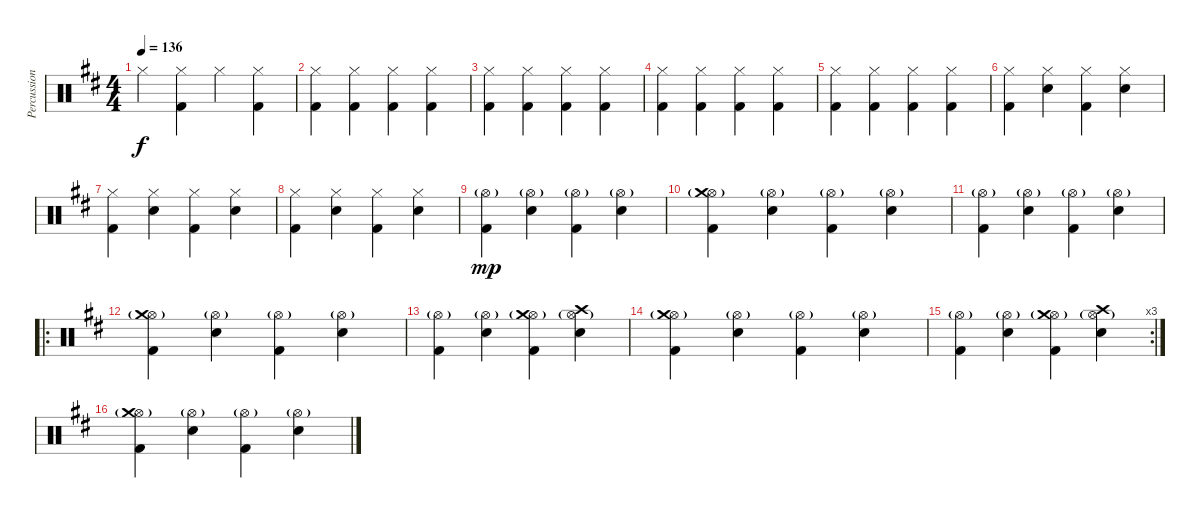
\track ("Percussions" "Percussion") {instrument percussion}
\staff {score}
\articulation defaults
\ts (4 4)
\tempo 136
\clef neutral
\ks d "Hi-Hat (closed)".4{dy f}
("Hi-Hat (closed)" "Kick (hit) 2").4 "Hi-Hat (closed)".4 ("Hi-Hat (closed)" "Kick (hit) 2").4 |
("Hi-Hat (closed)" "Kick (hit) 2").4 ("Hi-Hat (closed)" "Kick (hit) 2").4 ("Hi-Hat (closed)" "Kick (hit) 2").4 ("Hi-Hat (closed)" "Kick (hit) 2").4 |
("Hi-Hat (closed)" "Kick (hit) 2").4 ("Hi-Hat (closed)" "Kick (hit) 2").4 ("Hi-Hat (closed)" "Kick (hit) 2").4 ("Hi-Hat (closed)" "Kick (hit) 2").4 |
("Hi-Hat (closed)" "Kick (hit) 2").4 ("Hi-Hat (closed)" "Kick (hit) 2").4 ("Hi-Hat (closed)" "Kick (hit) 2").4 ("Hi-Hat (closed)" "Kick (hit) 2").4 |
("Hi-Hat (closed)" "Kick (hit) 2").4 ("Hi-Hat (closed)" "Kick (hit) 2").4 ("Hi-Hat (closed)" "Kick (hit) 2").4 ("Hi-Hat (closed)" "Kick (hit) 2").4 |
("Hi-Hat (closed)" "Kick (hit) 2").4 ("Hi-Hat (closed)" "Snare (hit) 2").4 ("Hi-Hat (closed)" "Kick (hit) 2").4 ("Hi-Hat (closed)" "Snare (hit) 2").4 |
("Hi-Hat (closed)" "Kick (hit) 2").4 ("Hi-Hat (closed)" "Snare (hit) 2").4 ("Hi-Hat (closed)" "Kick (hit) 2").4 ("Hi-Hat (closed)" "Snare (hit) 2").4 |
("Hi-Hat (closed)" "Kick (hit) 2").4 ("Hi-Hat (closed)" "Snare (hit) 2").4 ("Hi-Hat (closed)" "Kick (hit) 2").4 ("Hi-Hat (closed)" "Snare (hit) 2").4 |
("Hi-Hat (open)"{g} "Kick (hit) 2").4{dy mp} ("Hi-Hat (open)"{g} "Snare (hit) 2").4 ("Hi-Hat (open)"{g} "Kick (hit) 2").4 ("Hi-Hat (open)"{g} "Snare (hit) 2").4 |
("Hi-Hat (open)"{g} "Kick (hit) 2" "Crash medium (hit)").4 ("Hi-Hat (open)"{g} "Snare (hit) 2").4 ("Hi-Hat (open)"{g} "Kick (hit) 2").4 ("Hi-Hat (open)"{g} "Snare (hit) 2").4 |
("Hi-Hat (open)"{g} "Kick (hit) 2").4 ("Hi-Hat (open)"{g} "Snare (hit) 2").4 ("Hi-Hat (open)"{g} "Kick (hit) 2").4 ("Hi-Hat (open)"{g} "Snare (hit) 2").4 |
\ro
("Hi-Hat (open)"{g} "Kick (hit) 2" "Crash medium (hit)").4 ("Hi-Hat (open)"{g} "Snare (hit) 2").4 ("Hi-Hat (open)"{g} "Kick (hit) 2").4 ("Hi-Hat (open)"{g} "Snare (hit) 2").4 |
("Hi-Hat (open)"{g} "Kick (hit) 2").4 ("Hi-Hat (open)"{g} "Snare (hit) 2").4 ("Hi-Hat (open)"{g} "Kick (hit) 2" "Crash medium (hit)").4 ("Hi-Hat (open)"{g} "Snare (hit) 2" "Crash high (hit)").4 |
("Hi-Hat (open)"{g} "Kick (hit) 2" "Crash medium (hit)").4 ("Hi-Hat (open)"{g} "Snare (hit) 2").4 ("Hi-Hat (open)"{g} "Kick (hit) 2").4 ("Hi-Hat (open)"{g} "Snare (hit) 2").4 |
\rc 3
("Hi-Hat (open)"{g} "Kick (hit) 2").4 ("Hi-Hat (open)"{g} "Snare (hit) 2").4 ("Hi-Hat (open)"{g} "Kick (hit) 2" "Crash medium (hit)").4 ("Hi-Hat (open)"{g} "Snare (hit) 2" "Crash high (hit)").4 |
("Hi-Hat (open)"{g} "Kick (hit) 2" "Crash medium (hit)").4 ("Hi-Hat (open)"{g} "Snare (hit) 2").4 ("Hi-Hat (open)"{g} "Kick (hit) 2").4 ("Hi-Hat (open)"{g} "Snare (hit) 2").4
